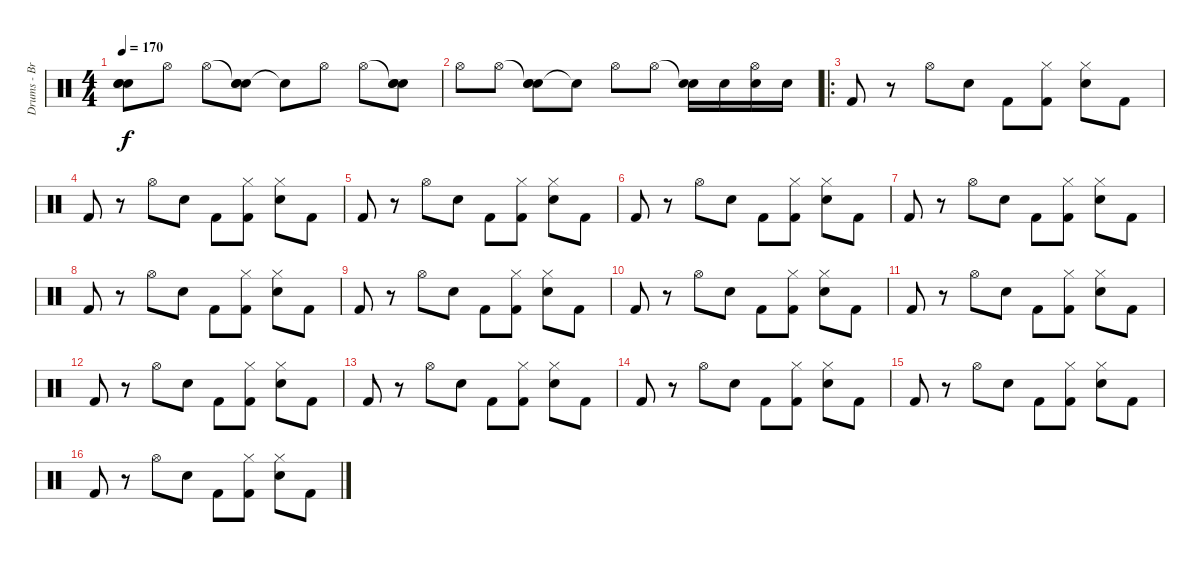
\track ("Drums - Branden Steineckert" "Drums - Br") {instrument percussion}
\staff {score}
\articulation defaults
\ts (4 4)
\tempo 170
\clef neutral
\ks c
("Snare (hit)"{t} "Electric Snare (hit)" "Electric Snare (hit)").8{dy f} "Hi-Hat (open)".8 "Hi-Hat (open)".8 ("Snare (hit)"{t} "Electric Snare (hit)" "Electric Snare (hit)").8 "Snare (hit)"{t}.8 "Hi-Hat (open)".8 "Hi-Hat (open)".8 ("Snare (hit)"{t} "Electric Snare (hit)" "Electric Snare (hit)").8 |
"Hi-Hat (open)".8 "Hi-Hat (open)".8 ("Snare (hit)"{t} "Electric Snare (hit)" "Electric Snare (hit)").8 "Snare (hit)"{t}.8 "Hi-Hat (open)".8 "Hi-Hat (open)".8 ("Snare (hit)"{t} "Electric Snare (hit)").16 "Electric Snare (hit)".16 ("Hi-Hat (open)" "Electric Snare (hit)").16 "Electric Snare (hit)".16 |
\ro "Kick (hit) 2".8
r.8 "Hi-Hat (open)".8 "Electric Snare (hit)".8 "Kick (hit) 2".8 ("Hi-Hat (closed)" "Kick (hit) 2").8 ("Hi-Hat (closed)" "Electric Snare (hit)").8 "Kick (hit) 2".8 |
"Kick (hit) 2".8 r.8 "Hi-Hat (open)".8 "Electric Snare (hit)".8 "Kick (hit) 2".8 ("Hi-Hat (closed)" "Kick (hit) 2").8 ("Hi-Hat (closed)" "Electric Snare (hit)").8 "Kick (hit) 2".8 |
"Kick (hit) 2".8 r.8 "Hi-Hat (open)".8 "Electric Snare (hit)".8 "Kick (hit) 2".8 ("Hi-Hat (closed)" "Kick (hit) 2").8 ("Hi-Hat (closed)" "Electric Snare (hit)").8 "Kick (hit) 2".8 |
"Kick (hit) 2".8 r.8 "Hi-Hat (open)".8 "Electric Snare (hit)".8 "Kick (hit) 2".8 ("Hi-Hat (closed)" "Kick (hit) 2").8 ("Hi-Hat (closed)" "Electric Snare (hit)").8 "Kick (hit) 2".8 |
"Kick (hit) 2".8 r.8 "Hi-Hat (open)".8 "Electric Snare (hit)".8 "Kick (hit) 2".8 ("Hi-Hat (closed)" "Kick (hit) 2").8 ("Hi-Hat (closed)" "Electric Snare (hit)").8 "Kick (hit) 2".8 |
"Kick (hit) 2".8 r.8 "Hi-Hat (open)".8 "Electric Snare (hit)".8 "Kick (hit) 2".8 ("Hi-Hat (closed)" "Kick (hit) 2").8 ("Hi-Hat (closed)" "Electric Snare (hit)").8 "Kick (hit) 2".8 |
"Kick (hit) 2".8 r.8 "Hi-Hat (open)".8 "Electric Snare (hit)".8 "Kick (hit) 2".8 ("Hi-Hat (closed)" "Kick (hit) 2").8 ("Hi-Hat (closed)" "Electric Snare (hit)").8 "Kick (hit) 2".8 |
"Kick (hit) 2".8 r.8 "Hi-Hat (open)".8 "Electric Snare (hit)".8 "Kick (hit) 2".8 ("Hi-Hat (closed)" "Kick (hit) 2").8 ("Hi-Hat (closed)" "Electric Snare (hit)").8 "Kick (hit) 2".8 |
"Kick (hit) 2".8 r.8 "Hi-Hat (open)".8 "Electric Snare (hit)".8 "Kick (hit) 2".8 ("Hi-Hat (closed)" "Kick (hit) 2").8 ("Hi-Hat (closed)" "Electric Snare (hit)").8 "Kick (hit) 2".8 |
"Kick (hit) 2".8 r.8 "Hi-Hat (open)".8 "Electric Snare (hit)".8 "Kick (hit) 2".8 ("Hi-Hat (closed)" "Kick (hit) 2").8 ("Hi-Hat (closed)" "Electric Snare (hit)").8 "Kick (hit) 2".8 |
"Kick (hit) 2".8 r.8 "Hi-Hat (open)".8 "Electric Snare (hit)".8 "Kick (hit) 2".8 ("Hi-Hat (closed)" "Kick (hit) 2").8 ("Hi-Hat (closed)" "Electric Snare (hit)").8 "Kick (hit) 2".8 |
"Kick (hit) 2".8 r.8 "Hi-Hat (open)".8 "Electric Snare (hit)".8 "Kick (hit) 2".8 ("Hi-Hat (closed)" "Kick (hit) 2").8 ("Hi-Hat (closed)" "Electric Snare (hit)").8 "Kick (hit) 2".8 |
"Kick (hit) 2".8 r.8 "Hi-Hat (open)".8 "Electric Snare (hit)".8 "Kick (hit) 2".8 ("Hi-Hat (closed)" "Kick (hit) 2").8 ("Hi-Hat (closed)" "Electric Snare (hit)").8 "Kick (hit) 2".8 |
"Kick (hit) 2".8 r.8 "Hi-Hat (open)".8 "Electric Snare (hit)".8 "Kick (hit) 2".8 ("Hi-Hat (closed)" "Kick (hit) 2").8 ("Hi-Hat (closed)" "Electric Snare (hit)").8 "Kick (hit) 2".8
